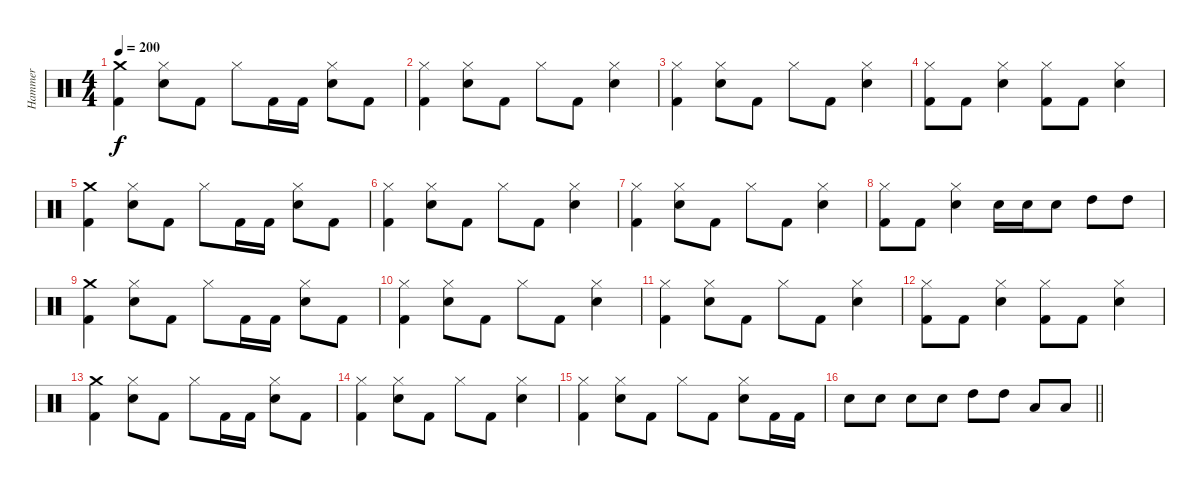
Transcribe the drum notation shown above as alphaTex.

\track ("Hammer" "Hammer") {instrument percussion}
\staff {score}
\articulation defaults
\ts (4 4)
\tempo 200
\clef neutral
\ks c
("Kick (hit) 2" "Crash medium (hit)").4{dy f} ("Snare (hit) 2" "Hi-Hat (closed)").8 "Kick (hit) 2".8 "Hi-Hat (closed)".8 "Kick (hit) 2".16 "Kick (hit) 2".16 ("Snare (hit) 2" "Hi-Hat (closed)").8 "Kick (hit) 2".8 |
("Kick (hit) 2" "Hi-Hat (closed)").4 ("Snare (hit) 2" "Hi-Hat (closed)").8 "Kick (hit) 2".8 "Hi-Hat (closed)".8 "Kick (hit) 2".8 ("Snare (hit) 2" "Hi-Hat (closed)").4 |
("Kick (hit) 2" "Hi-Hat (closed)").4 ("Snare (hit) 2" "Hi-Hat (closed)").8 "Kick (hit) 2".8 "Hi-Hat (closed)".8 "Kick (hit) 2".8 ("Snare (hit) 2" "Hi-Hat (closed)").4 |
("Kick (hit) 2" "Hi-Hat (closed)").8 "Kick (hit) 2".8 ("Snare (hit) 2" "Hi-Hat (closed)").4 ("Kick (hit) 2" "Hi-Hat (closed)").8 "Kick (hit) 2".8 ("Snare (hit) 2" "Hi-Hat (closed)").4 |
("Kick (hit) 2" "Crash medium (hit)").4 ("Snare (hit) 2" "Hi-Hat (closed)").8 "Kick (hit) 2".8 "Hi-Hat (closed)".8 "Kick (hit) 2".16 "Kick (hit) 2".16 ("Snare (hit) 2" "Hi-Hat (closed)").8 "Kick (hit) 2".8 |
("Kick (hit) 2" "Hi-Hat (closed)").4 ("Snare (hit) 2" "Hi-Hat (closed)").8 "Kick (hit) 2".8 "Hi-Hat (closed)".8 "Kick (hit) 2".8 ("Snare (hit) 2" "Hi-Hat (closed)").4 |
("Kick (hit) 2" "Hi-Hat (closed)").4 ("Snare (hit) 2" "Hi-Hat (closed)").8 "Kick (hit) 2".8 "Hi-Hat (closed)".8 "Kick (hit) 2".8 ("Snare (hit) 2" "Hi-Hat (closed)").4 |
("Kick (hit) 2" "Hi-Hat (closed)").8 "Kick (hit) 2".8 ("Snare (hit) 2" "Hi-Hat (closed)").4 "Snare (hit) 2".16 "Snare (hit) 2".16 "Snare (hit) 2".8 "High Tom (hit)".8 "High Tom (hit)".8 |
("Kick (hit) 2" "Crash medium (hit)").4 ("Snare (hit) 2" "Hi-Hat (closed)").8 "Kick (hit) 2".8 "Hi-Hat (closed)".8 "Kick (hit) 2".16 "Kick (hit) 2".16 ("Snare (hit) 2" "Hi-Hat (closed)").8 "Kick (hit) 2".8 |
("Kick (hit) 2" "Hi-Hat (closed)").4 ("Snare (hit) 2" "Hi-Hat (closed)").8 "Kick (hit) 2".8 "Hi-Hat (closed)".8 "Kick (hit) 2".8 ("Snare (hit) 2" "Hi-Hat (closed)").4 |
("Kick (hit) 2" "Hi-Hat (closed)").4 ("Snare (hit) 2" "Hi-Hat (closed)").8 "Kick (hit) 2".8 "Hi-Hat (closed)".8 "Kick (hit) 2".8 ("Snare (hit) 2" "Hi-Hat (closed)").4 |
("Kick (hit) 2" "Hi-Hat (closed)").8 "Kick (hit) 2".8 ("Snare (hit) 2" "Hi-Hat (closed)").4 ("Kick (hit) 2" "Hi-Hat (closed)").8 "Kick (hit) 2".8 ("Snare (hit) 2" "Hi-Hat (closed)").4 |
("Kick (hit) 2" "Crash medium (hit)").4 ("Snare (hit) 2" "Hi-Hat (closed)").8 "Kick (hit) 2".8 "Hi-Hat (closed)".8 "Kick (hit) 2".16 "Kick (hit) 2".16 ("Snare (hit) 2" "Hi-Hat (closed)").8 "Kick (hit) 2".8 |
("Kick (hit) 2" "Hi-Hat (closed)").4 ("Snare (hit) 2" "Hi-Hat (closed)").8 "Kick (hit) 2".8 "Hi-Hat (closed)".8 "Kick (hit) 2".8 ("Snare (hit) 2" "Hi-Hat (closed)").4 |
("Kick (hit) 2" "Hi-Hat (closed)").4 ("Snare (hit) 2" "Hi-Hat (closed)").8 "Kick (hit) 2".8 "Hi-Hat (closed)".8 "Kick (hit) 2".8 ("Snare (hit) 2" "Hi-Hat (closed)").8 "Kick (hit) 2".16 "Kick (hit) 2".16 |
\barLineRight lightlight "Snare (hit) 2".8 "Snare (hit) 2".8 "Snare (hit) 2".8 "Snare (hit) 2".8 "High Tom (hit)".8 "High Tom (hit)".8 "Low Tom (hit)".8 "Low Tom (hit)".8
